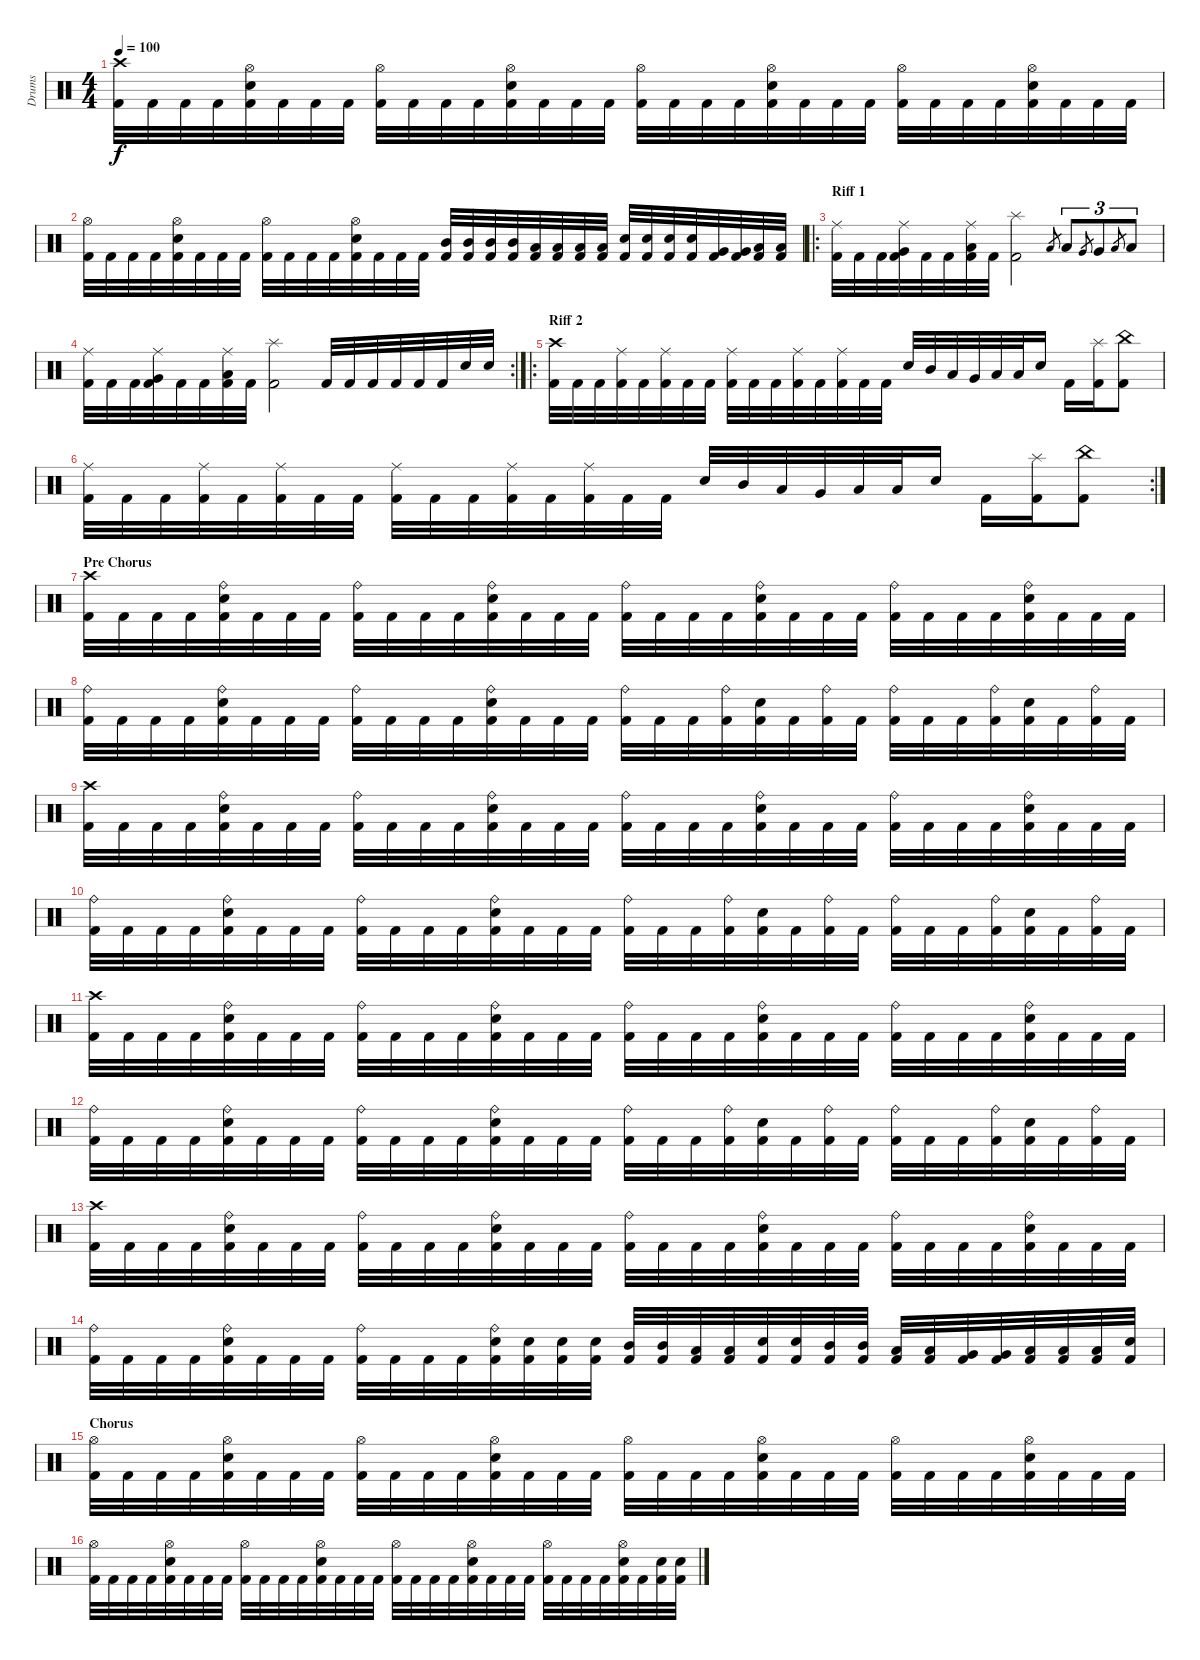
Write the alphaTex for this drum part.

\track ("Drums" "Drums") {instrument percussion}
\staff {score}
\articulation defaults
\ts (4 4)
\tempo 100
\clef neutral
\ks c
("Crash high (hit)" "Kick (hit) 2").32{dy f} "Kick (hit) 2".32 "Kick (hit) 2".32 "Kick (hit) 2".32 ("Hi-Hat (open)" "Electric Snare (hit)" "Kick (hit) 2").32 "Kick (hit) 2".32 "Kick (hit) 2".32 "Kick (hit) 2".32 ("Hi-Hat (open)" "Kick (hit) 2").32 "Kick (hit) 2".32 "Kick (hit) 2".32 "Kick (hit) 2".32 ("Hi-Hat (open)" "Electric Snare (hit)" "Kick (hit) 2").32 "Kick (hit) 2".32 "Kick (hit) 2".32 "Kick (hit) 2".32 ("Hi-Hat (open)" "Kick (hit) 2").32 "Kick (hit) 2".32 "Kick (hit) 2".32 "Kick (hit) 2".32 ("Hi-Hat (open)" "Electric Snare (hit)" "Kick (hit) 2").32 "Kick (hit) 2".32 "Kick (hit) 2".32 "Kick (hit) 2".32 ("Hi-Hat (open)" "Kick (hit) 2").32 "Kick (hit) 2".32 "Kick (hit) 2".32 "Kick (hit) 2".32 ("Hi-Hat (open)" "Electric Snare (hit)" "Kick (hit) 2").32 "Kick (hit) 2".32 "Kick (hit) 2".32 "Kick (hit) 2".32 |
("Hi-Hat (open)" "Kick (hit) 2").32 "Kick (hit) 2".32 "Kick (hit) 2".32 "Kick (hit) 2".32 ("Hi-Hat (open)" "Electric Snare (hit)" "Kick (hit) 2").32 "Kick (hit) 2".32 "Kick (hit) 2".32 "Kick (hit) 2".32 ("Hi-Hat (open)" "Kick (hit) 2").32 "Kick (hit) 2".32 "Kick (hit) 2".32 "Kick (hit) 2".32 ("Hi-Hat (open)" "Electric Snare (hit)" "Kick (hit) 2").32 "Kick (hit) 2".32 "Kick (hit) 2".32 "Kick (hit) 2".32 ("Mid Tom (hit)" "Kick (hit) 2").32 ("Mid Tom (hit)" "Kick (hit) 2").32 ("Mid Tom (hit)" "Kick (hit) 2").32 ("Mid Tom (hit)" "Kick (hit) 2").32 ("Low Tom (hit)" "Kick (hit) 2").32 ("Low Tom (hit)" "Kick (hit) 2").32 ("Low Tom (hit)" "Kick (hit) 2").32 ("Low Tom (hit)" "Kick (hit) 2").32 ("Electric Snare (hit)" "Kick (hit) 2").32 ("Electric Snare (hit)" "Kick (hit) 2").32 ("Electric Snare (hit)" "Kick (hit) 2").32 ("Electric Snare (hit)" "Kick (hit) 2").32 ("Very Low Tom (hit)" "Kick (hit) 2").32 ("Very Low Tom (hit)" "Kick (hit) 2").32 ("Low Floor Tom (hit)" "Kick (hit) 2").32 ("Low Floor Tom (hit)" "Kick (hit) 2").32 |
\ro
\section ("" "Riff 1")
("Ride (middle)" "Kick (hit) 2").32 "Kick (hit) 2".32 "Kick (hit) 2".32 ("Ride (middle)" "Very Low Tom (hit)" "Kick (hit) 2").32 "Kick (hit) 2".32 "Kick (hit) 2".32 ("Ride (middle)" "Low Floor Tom (hit)" "Kick (hit) 2").32 "Kick (hit) 2".32 ("Splash (hit)" "Kick (hit) 2").2 "Low Tom (hit)".8{gr} "Low Tom (hit)".8{tu (3 2)} "Very Low Tom (hit)".8{gr} "Very Low Tom (hit)".8{tu (3 2)} "Low Floor Tom (hit)".8{gr} "Low Floor Tom (hit)".8{tu (3 2)} |
\rc 2
("Ride (middle)" "Kick (hit) 2").32 "Kick (hit) 2".32 "Kick (hit) 2".32 ("Ride (middle)" "Very Low Tom (hit)" "Kick (hit) 2").32 "Kick (hit) 2".32 "Kick (hit) 2".32 ("Ride (middle)" "Low Floor Tom (hit)" "Kick (hit) 2").32 "Kick (hit) 2".32 ("Splash (hit)" "Kick (hit) 2").2 "Kick (hit) 2".32 "Kick (hit) 2".32 "Kick (hit) 2".32 "Kick (hit) 2".32 "Kick (hit) 2".32 "Kick (hit) 2".32 "Electric Snare (hit)".32 "Electric Snare (hit)".32 |
\ro
\section ("" "Riff 2")
("Crash high (hit)" "Kick (hit) 2").32 "Kick (hit) 2".32 "Kick (hit) 2".32 ("Ride (middle)" "Kick (hit) 2").32 "Kick (hit) 2".32 ("Ride (middle)" "Kick (hit) 2").32 "Kick (hit) 2".32 "Kick (hit) 2".32 ("Ride (middle)" "Kick (hit) 2").32 "Kick (hit) 2".32 "Kick (hit) 2".32 ("Ride (middle)" "Kick (hit) 2").32 "Kick (hit) 2".32 ("Ride (middle)" "Kick (hit) 2").32 "Kick (hit) 2".32 "Kick (hit) 2".32 "Electric Snare (hit)".32 "Mid Tom (hit)".32 "Low Tom (hit)".32 "Very Low Tom (hit)".32 "Low Floor Tom (hit)".32 "Low Floor Tom (hit)".32 "Electric Snare (hit)".16 "Kick (hit) 2".16 ("Splash (hit)" "Kick (hit) 2").16 ("China (hit)" "Kick (hit) 2").8 |
\rc 2
("Ride (middle)" "Kick (hit) 2").32 "Kick (hit) 2".32 "Kick (hit) 2".32 ("Ride (middle)" "Kick (hit) 2").32 "Kick (hit) 2".32 ("Ride (middle)" "Kick (hit) 2").32 "Kick (hit) 2".32 "Kick (hit) 2".32 ("Ride (middle)" "Kick (hit) 2").32 "Kick (hit) 2".32 "Kick (hit) 2".32 ("Ride (middle)" "Kick (hit) 2").32 "Kick (hit) 2".32 ("Ride (middle)" "Kick (hit) 2").32 "Kick (hit) 2".32 "Kick (hit) 2".32 "Electric Snare (hit)".32 "Mid Tom (hit)".32 "Low Tom (hit)".32 "Very Low Tom (hit)".32 "Low Floor Tom (hit)".32 "Low Floor Tom (hit)".32 "Electric Snare (hit)".16 "Kick (hit) 2".16 ("Splash (hit)" "Kick (hit) 2").16 ("China (hit)" "Kick (hit) 2").8 |
\section ("" "Pre Chorus")
("Crash high (hit)" "Kick (hit) 2").32 "Kick (hit) 2".32 "Kick (hit) 2".32 "Kick (hit) 2".32 ("Ride (bell)" "Electric Snare (hit)" "Kick (hit) 2").32 "Kick (hit) 2".32 "Kick (hit) 2".32 "Kick (hit) 2".32 ("Ride (bell)" "Kick (hit) 2").32 "Kick (hit) 2".32 "Kick (hit) 2".32 "Kick (hit) 2".32 ("Ride (bell)" "Electric Snare (hit)" "Kick (hit) 2").32 "Kick (hit) 2".32 "Kick (hit) 2".32 "Kick (hit) 2".32 ("Ride (bell)" "Kick (hit) 2").32 "Kick (hit) 2".32 "Kick (hit) 2".32 "Kick (hit) 2".32 ("Ride (bell)" "Electric Snare (hit)" "Kick (hit) 2").32 "Kick (hit) 2".32 "Kick (hit) 2".32 "Kick (hit) 2".32 ("Ride (bell)" "Kick (hit) 2").32 "Kick (hit) 2".32 "Kick (hit) 2".32 "Kick (hit) 2".32 ("Ride (bell)" "Electric Snare (hit)" "Kick (hit) 2").32 "Kick (hit) 2".32 "Kick (hit) 2".32 "Kick (hit) 2".32 |
("Ride (bell)" "Kick (hit) 2").32 "Kick (hit) 2".32 "Kick (hit) 2".32 "Kick (hit) 2".32 ("Ride (bell)" "Electric Snare (hit)" "Kick (hit) 2").32 "Kick (hit) 2".32 "Kick (hit) 2".32 "Kick (hit) 2".32 ("Ride (bell)" "Kick (hit) 2").32 "Kick (hit) 2".32 "Kick (hit) 2".32 "Kick (hit) 2".32 ("Ride (bell)" "Electric Snare (hit)" "Kick (hit) 2").32 "Kick (hit) 2".32 "Kick (hit) 2".32 "Kick (hit) 2".32 ("Ride (bell)" "Kick (hit) 2").32 "Kick (hit) 2".32 "Kick (hit) 2".32 ("Ride (bell)" "Kick (hit) 2").32 ("Electric Snare (hit)" "Kick (hit) 2").32 "Kick (hit) 2".32 ("Ride (bell)" "Kick (hit) 2").32 "Kick (hit) 2".32 ("Ride (bell)" "Kick (hit) 2").32 "Kick (hit) 2".32 "Kick (hit) 2".32 ("Ride (bell)" "Kick (hit) 2").32 ("Electric Snare (hit)" "Kick (hit) 2").32 "Kick (hit) 2".32 ("Ride (bell)" "Kick (hit) 2").32 "Kick (hit) 2".32 |
("Crash high (hit)" "Kick (hit) 2").32 "Kick (hit) 2".32 "Kick (hit) 2".32 "Kick (hit) 2".32 ("Ride (bell)" "Electric Snare (hit)" "Kick (hit) 2").32 "Kick (hit) 2".32 "Kick (hit) 2".32 "Kick (hit) 2".32 ("Ride (bell)" "Kick (hit) 2").32 "Kick (hit) 2".32 "Kick (hit) 2".32 "Kick (hit) 2".32 ("Ride (bell)" "Electric Snare (hit)" "Kick (hit) 2").32 "Kick (hit) 2".32 "Kick (hit) 2".32 "Kick (hit) 2".32 ("Ride (bell)" "Kick (hit) 2").32 "Kick (hit) 2".32 "Kick (hit) 2".32 "Kick (hit) 2".32 ("Ride (bell)" "Electric Snare (hit)" "Kick (hit) 2").32 "Kick (hit) 2".32 "Kick (hit) 2".32 "Kick (hit) 2".32 ("Ride (bell)" "Kick (hit) 2").32 "Kick (hit) 2".32 "Kick (hit) 2".32 "Kick (hit) 2".32 ("Ride (bell)" "Electric Snare (hit)" "Kick (hit) 2").32 "Kick (hit) 2".32 "Kick (hit) 2".32 "Kick (hit) 2".32 |
("Ride (bell)" "Kick (hit) 2").32 "Kick (hit) 2".32 "Kick (hit) 2".32 "Kick (hit) 2".32 ("Ride (bell)" "Electric Snare (hit)" "Kick (hit) 2").32 "Kick (hit) 2".32 "Kick (hit) 2".32 "Kick (hit) 2".32 ("Ride (bell)" "Kick (hit) 2").32 "Kick (hit) 2".32 "Kick (hit) 2".32 "Kick (hit) 2".32 ("Ride (bell)" "Electric Snare (hit)" "Kick (hit) 2").32 "Kick (hit) 2".32 "Kick (hit) 2".32 "Kick (hit) 2".32 ("Ride (bell)" "Kick (hit) 2").32 "Kick (hit) 2".32 "Kick (hit) 2".32 ("Ride (bell)" "Kick (hit) 2").32 ("Electric Snare (hit)" "Kick (hit) 2").32 "Kick (hit) 2".32 ("Ride (bell)" "Kick (hit) 2").32 "Kick (hit) 2".32 ("Ride (bell)" "Kick (hit) 2").32 "Kick (hit) 2".32 "Kick (hit) 2".32 ("Ride (bell)" "Kick (hit) 2").32 ("Electric Snare (hit)" "Kick (hit) 2").32 "Kick (hit) 2".32 ("Ride (bell)" "Kick (hit) 2").32 "Kick (hit) 2".32 |
("Crash high (hit)" "Kick (hit) 2").32 "Kick (hit) 2".32 "Kick (hit) 2".32 "Kick (hit) 2".32 ("Ride (bell)" "Electric Snare (hit)" "Kick (hit) 2").32 "Kick (hit) 2".32 "Kick (hit) 2".32 "Kick (hit) 2".32 ("Ride (bell)" "Kick (hit) 2").32 "Kick (hit) 2".32 "Kick (hit) 2".32 "Kick (hit) 2".32 ("Ride (bell)" "Electric Snare (hit)" "Kick (hit) 2").32 "Kick (hit) 2".32 "Kick (hit) 2".32 "Kick (hit) 2".32 ("Ride (bell)" "Kick (hit) 2").32 "Kick (hit) 2".32 "Kick (hit) 2".32 "Kick (hit) 2".32 ("Ride (bell)" "Electric Snare (hit)" "Kick (hit) 2").32 "Kick (hit) 2".32 "Kick (hit) 2".32 "Kick (hit) 2".32 ("Ride (bell)" "Kick (hit) 2").32 "Kick (hit) 2".32 "Kick (hit) 2".32 "Kick (hit) 2".32 ("Ride (bell)" "Electric Snare (hit)" "Kick (hit) 2").32 "Kick (hit) 2".32 "Kick (hit) 2".32 "Kick (hit) 2".32 |
("Ride (bell)" "Kick (hit) 2").32 "Kick (hit) 2".32 "Kick (hit) 2".32 "Kick (hit) 2".32 ("Ride (bell)" "Electric Snare (hit)" "Kick (hit) 2").32 "Kick (hit) 2".32 "Kick (hit) 2".32 "Kick (hit) 2".32 ("Ride (bell)" "Kick (hit) 2").32 "Kick (hit) 2".32 "Kick (hit) 2".32 "Kick (hit) 2".32 ("Ride (bell)" "Electric Snare (hit)" "Kick (hit) 2").32 "Kick (hit) 2".32 "Kick (hit) 2".32 "Kick (hit) 2".32 ("Ride (bell)" "Kick (hit) 2").32 "Kick (hit) 2".32 "Kick (hit) 2".32 ("Ride (bell)" "Kick (hit) 2").32 ("Electric Snare (hit)" "Kick (hit) 2").32 "Kick (hit) 2".32 ("Ride (bell)" "Kick (hit) 2").32 "Kick (hit) 2".32 ("Ride (bell)" "Kick (hit) 2").32 "Kick (hit) 2".32 "Kick (hit) 2".32 ("Ride (bell)" "Kick (hit) 2").32 ("Electric Snare (hit)" "Kick (hit) 2").32 "Kick (hit) 2".32 ("Ride (bell)" "Kick (hit) 2").32 "Kick (hit) 2".32 |
("Crash high (hit)" "Kick (hit) 2").32 "Kick (hit) 2".32 "Kick (hit) 2".32 "Kick (hit) 2".32 ("Ride (bell)" "Electric Snare (hit)" "Kick (hit) 2").32 "Kick (hit) 2".32 "Kick (hit) 2".32 "Kick (hit) 2".32 ("Ride (bell)" "Kick (hit) 2").32 "Kick (hit) 2".32 "Kick (hit) 2".32 "Kick (hit) 2".32 ("Ride (bell)" "Electric Snare (hit)" "Kick (hit) 2").32 "Kick (hit) 2".32 "Kick (hit) 2".32 "Kick (hit) 2".32 ("Ride (bell)" "Kick (hit) 2").32 "Kick (hit) 2".32 "Kick (hit) 2".32 "Kick (hit) 2".32 ("Ride (bell)" "Electric Snare (hit)" "Kick (hit) 2").32 "Kick (hit) 2".32 "Kick (hit) 2".32 "Kick (hit) 2".32 ("Ride (bell)" "Kick (hit) 2").32 "Kick (hit) 2".32 "Kick (hit) 2".32 "Kick (hit) 2".32 ("Ride (bell)" "Electric Snare (hit)" "Kick (hit) 2").32 "Kick (hit) 2".32 "Kick (hit) 2".32 "Kick (hit) 2".32 |
("Ride (bell)" "Kick (hit) 2").32 "Kick (hit) 2".32 "Kick (hit) 2".32 "Kick (hit) 2".32 ("Ride (bell)" "Electric Snare (hit)" "Kick (hit) 2").32 "Kick (hit) 2".32 "Kick (hit) 2".32 "Kick (hit) 2".32 ("Ride (bell)" "Kick (hit) 2").32 "Kick (hit) 2".32 "Kick (hit) 2".32 "Kick (hit) 2".32 ("Ride (bell)" "Electric Snare (hit)" "Kick (hit) 2").32 ("Electric Snare (hit)" "Kick (hit) 2").32 ("Electric Snare (hit)" "Kick (hit) 2").32 ("Electric Snare (hit)" "Kick (hit) 2").32 ("Mid Tom (hit)" "Kick (hit) 2").32 ("Mid Tom (hit)" "Kick (hit) 2").32 ("Low Tom (hit)" "Kick (hit) 2").32 ("Low Tom (hit)" "Kick (hit) 2").32 ("Electric Snare (hit)" "Kick (hit) 2").32 ("Electric Snare (hit)" "Kick (hit) 2").32 ("Mid Tom (hit)" "Kick (hit) 2").32 ("Mid Tom (hit)" "Kick (hit) 2").32 ("Low Tom (hit)" "Kick (hit) 2").32 ("Low Tom (hit)" "Kick (hit) 2").32 ("Very Low Tom (hit)" "Kick (hit) 2").32 ("Very Low Tom (hit)" "Kick (hit) 2").32 ("Low Floor Tom (hit)" "Kick (hit) 2").32 ("Low Floor Tom (hit)" "Kick (hit) 2").32 ("Low Floor Tom (hit)" "Kick (hit) 2").32 ("Snare (hit)" "Kick (hit) 2").32 |
\section ("" "Chorus")
("Hi-Hat (open)" "Kick (hit) 2").32 "Kick (hit) 2".32 "Kick (hit) 2".32 "Kick (hit) 2".32 ("Hi-Hat (open)" "Electric Snare (hit)" "Kick (hit) 2").32 "Kick (hit) 2".32 "Kick (hit) 2".32 "Kick (hit) 2".32 ("Hi-Hat (open)" "Kick (hit) 2").32 "Kick (hit) 2".32 "Kick (hit) 2".32 "Kick (hit) 2".32 ("Hi-Hat (open)" "Electric Snare (hit)" "Kick (hit) 2").32 "Kick (hit) 2".32 "Kick (hit) 2".32 "Kick (hit) 2".32 ("Hi-Hat (open)" "Kick (hit) 2").32 "Kick (hit) 2".32 "Kick (hit) 2".32 "Kick (hit) 2".32 ("Hi-Hat (open)" "Electric Snare (hit)" "Kick (hit) 2").32 "Kick (hit) 2".32 "Kick (hit) 2".32 "Kick (hit) 2".32 ("Hi-Hat (open)" "Kick (hit) 2").32 "Kick (hit) 2".32 "Kick (hit) 2".32 "Kick (hit) 2".32 ("Hi-Hat (open)" "Electric Snare (hit)" "Kick (hit) 2").32 "Kick (hit) 2".32 "Kick (hit) 2".32 "Kick (hit) 2".32 |
("Hi-Hat (open)" "Kick (hit) 2").32 "Kick (hit) 2".32 "Kick (hit) 2".32 "Kick (hit) 2".32 ("Hi-Hat (open)" "Electric Snare (hit)" "Kick (hit) 2").32 "Kick (hit) 2".32 "Kick (hit) 2".32 "Kick (hit) 2".32 ("Hi-Hat (open)" "Kick (hit) 2").32 "Kick (hit) 2".32 "Kick (hit) 2".32 "Kick (hit) 2".32 ("Hi-Hat (open)" "Electric Snare (hit)" "Kick (hit) 2").32 "Kick (hit) 2".32 "Kick (hit) 2".32 "Kick (hit) 2".32 ("Hi-Hat (open)" "Kick (hit) 2").32 "Kick (hit) 2".32 "Kick (hit) 2".32 "Kick (hit) 2".32 ("Hi-Hat (open)" "Electric Snare (hit)" "Kick (hit) 2").32 "Kick (hit) 2".32 "Kick (hit) 2".32 "Kick (hit) 2".32 ("Hi-Hat (open)" "Kick (hit) 2").32 "Kick (hit) 2".32 "Kick (hit) 2".32 "Kick (hit) 2".32 ("Hi-Hat (open)" "Electric Snare (hit)" "Kick (hit) 2").32 "Kick (hit) 2".32 ("Electric Snare (hit)" "Kick (hit) 2").32 ("Electric Snare (hit)" "Kick (hit) 2").32
